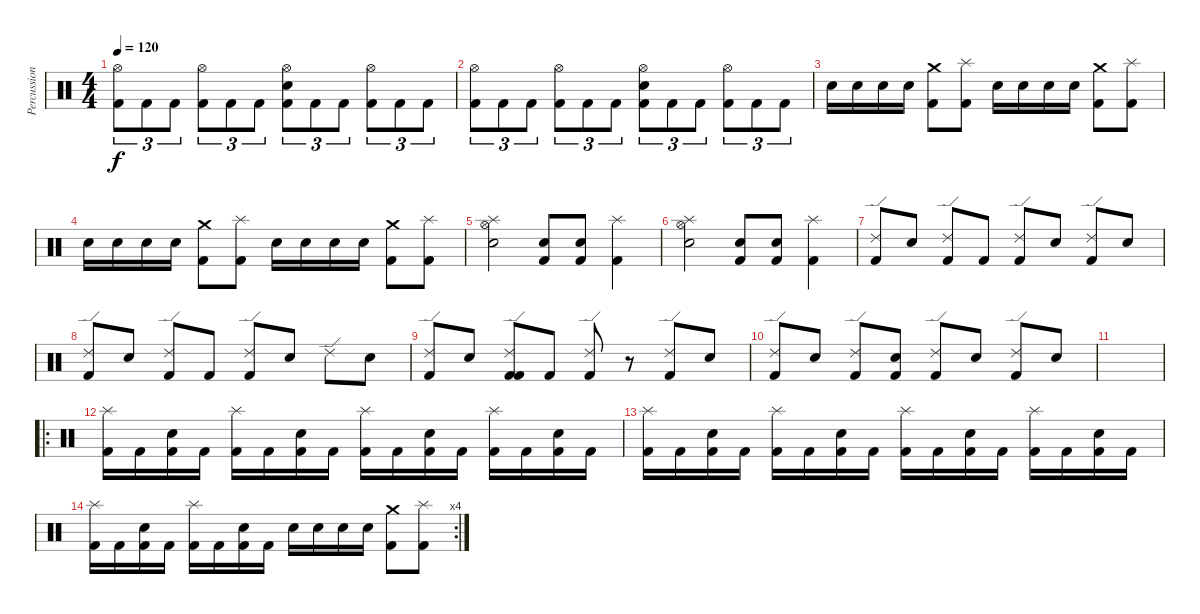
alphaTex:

\track ("Percussion" "Percussion") {instrument percussion}
\staff {score}
\articulation defaults
\ts (4 4)
\tempo 120
\clef neutral
\ks c
("Hi-Hat (open)" "Kick (hit) 2").8{tu (3 2) dy f} "Kick (hit) 2".8{tu (3 2)} "Kick (hit) 2".8{tu (3 2)} ("Hi-Hat (open)" "Kick (hit) 2").8{tu (3 2)} "Kick (hit) 2".8{tu (3 2)} "Kick (hit) 2".8{tu (3 2)} ("Hi-Hat (open)" "Snare (hit) 2" "Kick (hit) 2").8{tu (3 2)} "Kick (hit) 2".8{tu (3 2)} "Kick (hit) 2".8{tu (3 2)} ("Hi-Hat (open)" "Kick (hit) 2").8{tu (3 2)} "Kick (hit) 2".8{tu (3 2)} "Kick (hit) 2".8{tu (3 2)} |
("Hi-Hat (open)" "Kick (hit) 2").8{tu (3 2)} "Kick (hit) 2".8{tu (3 2)} "Kick (hit) 2".8{tu (3 2)} ("Hi-Hat (open)" "Kick (hit) 2").8{tu (3 2)} "Kick (hit) 2".8{tu (3 2)} "Kick (hit) 2".8{tu (3 2)} ("Hi-Hat (open)" "Snare (hit) 2" "Kick (hit) 2").8{tu (3 2)} "Kick (hit) 2".8{tu (3 2)} "Kick (hit) 2".8{tu (3 2)} ("Hi-Hat (open)" "Kick (hit) 2").8{tu (3 2)} "Kick (hit) 2".8{tu (3 2)} "Kick (hit) 2".8{tu (3 2)} |
"Snare (hit) 2".16 "Snare (hit) 2".16 "Snare (hit) 2".16 "Snare (hit) 2".16 ("Kick (hit) 2" "Crash medium (hit)").8 ("Kick (hit) 2" "Splash (hit)").8 "Snare (hit) 2".16 "Snare (hit) 2".16 "Snare (hit) 2".16 "Snare (hit) 2".16 ("Kick (hit) 2" "Crash medium (hit)").8 ("Kick (hit) 2" "Splash (hit)").8 |
"Snare (hit) 2".16 "Snare (hit) 2".16 "Snare (hit) 2".16 "Snare (hit) 2".16 ("Kick (hit) 2" "Crash medium (hit)").8 ("Kick (hit) 2" "Splash (hit)").8 "Snare (hit) 2".16 "Snare (hit) 2".16 "Snare (hit) 2".16 "Snare (hit) 2".16 ("Kick (hit) 2" "Crash medium (hit)").8 ("Kick (hit) 2" "Splash (hit)").8 |
("Splash (hit)" "Snare (hit) 2" "Hi-Hat (open)").2 ("Snare (hit) 2" "Kick (hit) 2").8 ("Snare (hit) 2" "Kick (hit) 2").8 ("Kick (hit) 2" "Splash (hit)").4 |
("Splash (hit)" "Snare (hit) 2" "Hi-Hat (open)").2 ("Snare (hit) 2" "Kick (hit) 2").8 ("Snare (hit) 2" "Kick (hit) 2").8 ("Kick (hit) 2" "Splash (hit)").4 |
("Kick (hit) 2" "Ride (edge) 2").8 "Snare (hit) 2".8 ("Kick (hit) 2" "Ride (edge) 2").8 "Kick (hit) 2".8 ("Kick (hit) 2" "Ride (edge) 2").8 "Snare (hit) 2".8 ("Kick (hit) 2" "Ride (edge) 2").8 "Snare (hit) 2".8 |
("Kick (hit) 2" "Ride (edge) 2").8 "Snare (hit) 2".8 ("Kick (hit) 2" "Ride (edge) 2").8 "Kick (hit) 2".8 ("Kick (hit) 2" "Ride (edge) 2").8 "Snare (hit) 2".8 "Ride (edge) 2".8 "Snare (hit) 2".8 |
("Kick (hit) 2" "Ride (edge) 2").8 "Snare (hit) 2".8 ("Kick (hit) 2" "Kick (hit) 2" "Ride (edge) 2").8 "Kick (hit) 2".8 ("Kick (hit) 2" "Ride (edge) 2").8 r.8 ("Kick (hit) 2" "Ride (edge) 2").8 "Snare (hit) 2".8 |
("Kick (hit) 2" "Ride (edge) 2").8 "Snare (hit) 2".8 ("Kick (hit) 2" "Ride (edge) 2").8 ("Kick (hit) 2" "Snare (hit) 2").8 ("Kick (hit) 2" "Ride (edge) 2").8 "Snare (hit) 2".8 ("Kick (hit) 2" "Ride (edge) 2").8 "Snare (hit) 2".8 |
|
\ro
("Splash (hit)" "Kick (hit) 2").16 "Kick (hit) 2".16 ("Snare (hit) 2" "Kick (hit) 2").16 "Kick (hit) 2".16 ("Splash (hit)" "Kick (hit) 2").16 "Kick (hit) 2".16 ("Snare (hit) 2" "Kick (hit) 2").16 "Kick (hit) 2".16 ("Splash (hit)" "Kick (hit) 2").16 "Kick (hit) 2".16 ("Snare (hit) 2" "Kick (hit) 2").16 "Kick (hit) 2".16 ("Splash (hit)" "Kick (hit) 2").16 "Kick (hit) 2".16 ("Snare (hit) 2" "Kick (hit) 2").16 "Kick (hit) 2".16 |
("Splash (hit)" "Kick (hit) 2").16 "Kick (hit) 2".16 ("Snare (hit) 2" "Kick (hit) 2").16 "Kick (hit) 2".16 ("Splash (hit)" "Kick (hit) 2").16 "Kick (hit) 2".16 ("Snare (hit) 2" "Kick (hit) 2").16 "Kick (hit) 2".16 ("Splash (hit)" "Kick (hit) 2").16 "Kick (hit) 2".16 ("Snare (hit) 2" "Kick (hit) 2").16 "Kick (hit) 2".16 ("Splash (hit)" "Kick (hit) 2").16 "Kick (hit) 2".16 ("Snare (hit) 2" "Kick (hit) 2").16 "Kick (hit) 2".16 |
\rc 4
("Splash (hit)" "Kick (hit) 2").16 "Kick (hit) 2".16 ("Snare (hit) 2" "Kick (hit) 2").16 "Kick (hit) 2".16 ("Splash (hit)" "Kick (hit) 2").16 "Kick (hit) 2".16 ("Snare (hit) 2" "Kick (hit) 2").16 "Kick (hit) 2".16 "Snare (hit) 2".16 "Snare (hit) 2".16 "Snare (hit) 2".16 "Snare (hit) 2".16 ("Kick (hit) 2" "Crash medium (hit)").8 ("Kick (hit) 2" "Splash (hit)").8
